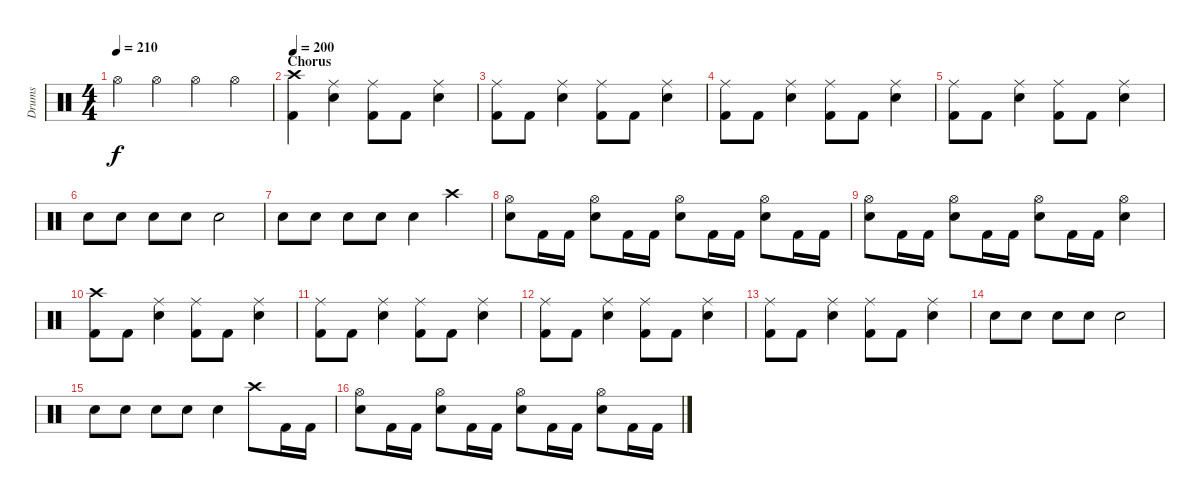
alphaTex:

\track ("Drums" "Drums") {instrument percussion}
\staff {score}
\articulation defaults
\ts (4 4)
\tempo 210
\clef neutral
\ks c "Hi-Hat (open)".4{dy f} "Hi-Hat (open)".4 "Hi-Hat (open)".4 "Hi-Hat (open)".4
|
\section ("" "Chorus")
\tempo 200
("Crash high (hit)" "Kick (hit) 2").4 ("Ride (middle)" "Electric Snare (hit)").4 ("Ride (middle)" "Kick (hit) 2").8 "Kick (hit) 2".8 ("Ride (middle)" "Electric Snare (hit)").4 |
("Ride (middle)" "Kick (hit) 2").8 "Kick (hit) 2".8 ("Ride (middle)" "Electric Snare (hit)").4 ("Ride (middle)" "Kick (hit) 2").8 "Kick (hit) 2".8 ("Ride (middle)" "Electric Snare (hit)").4 |
("Ride (middle)" "Kick (hit) 2").8 "Kick (hit) 2".8 ("Ride (middle)" "Electric Snare (hit)").4 ("Ride (middle)" "Kick (hit) 2").8 "Kick (hit) 2".8 ("Ride (middle)" "Electric Snare (hit)").4 |
("Ride (middle)" "Kick (hit) 2").8 "Kick (hit) 2".8 ("Ride (middle)" "Electric Snare (hit)").4 ("Ride (middle)" "Kick (hit) 2").8 "Kick (hit) 2".8 ("Ride (middle)" "Electric Snare (hit)").4 |
"Electric Snare (hit)".8 "Electric Snare (hit)".8 "Electric Snare (hit)".8 "Electric Snare (hit)".8 "Electric Snare (hit)".2 |
"Electric Snare (hit)".8 "Electric Snare (hit)".8 "Electric Snare (hit)".8 "Electric Snare (hit)".8 "Electric Snare (hit)".4 "Crash high (hit)".4 |
("Hi-Hat (open)" "Electric Snare (hit)").8 "Kick (hit) 2".16 "Kick (hit) 2".16 ("Hi-Hat (open)" "Electric Snare (hit)").8 "Kick (hit) 2".16 "Kick (hit) 2".16 ("Hi-Hat (open)" "Electric Snare (hit)").8 "Kick (hit) 2".16 "Kick (hit) 2".16 ("Hi-Hat (open)" "Electric Snare (hit)").8 "Kick (hit) 2".16 "Kick (hit) 2".16 |
("Hi-Hat (open)" "Electric Snare (hit)").8 "Kick (hit) 2".16 "Kick (hit) 2".16 ("Hi-Hat (open)" "Electric Snare (hit)").8 "Kick (hit) 2".16 "Kick (hit) 2".16 ("Hi-Hat (open)" "Electric Snare (hit)").8 "Kick (hit) 2".16 "Kick (hit) 2".16 ("Hi-Hat (open)" "Electric Snare (hit)").4 |
("Crash high (hit)" "Kick (hit) 2").8 "Kick (hit) 2".8 ("Ride (middle)" "Electric Snare (hit)").4 ("Ride (middle)" "Kick (hit) 2").8 "Kick (hit) 2".8 ("Ride (middle)" "Electric Snare (hit)").4 |
("Ride (middle)" "Kick (hit) 2").8 "Kick (hit) 2".8 ("Ride (middle)" "Electric Snare (hit)").4 ("Ride (middle)" "Kick (hit) 2").8 "Kick (hit) 2".8 ("Ride (middle)" "Electric Snare (hit)").4 |
("Ride (middle)" "Kick (hit) 2").8 "Kick (hit) 2".8 ("Ride (middle)" "Electric Snare (hit)").4 ("Ride (middle)" "Kick (hit) 2").8 "Kick (hit) 2".8 ("Ride (middle)" "Electric Snare (hit)").4 |
("Ride (middle)" "Kick (hit) 2").8 "Kick (hit) 2".8 ("Ride (middle)" "Electric Snare (hit)").4 ("Ride (middle)" "Kick (hit) 2").8 "Kick (hit) 2".8 ("Ride (middle)" "Electric Snare (hit)").4 |
"Electric Snare (hit)".8 "Electric Snare (hit)".8 "Electric Snare (hit)".8 "Electric Snare (hit)".8 "Electric Snare (hit)".2 |
"Electric Snare (hit)".8 "Electric Snare (hit)".8 "Electric Snare (hit)".8 "Electric Snare (hit)".8 "Electric Snare (hit)".4 "Crash high (hit)".8 "Kick (hit) 2".16 "Kick (hit) 2".16 |
("Hi-Hat (open)" "Electric Snare (hit)").8 "Kick (hit) 2".16 "Kick (hit) 2".16 ("Hi-Hat (open)" "Electric Snare (hit)").8 "Kick (hit) 2".16 "Kick (hit) 2".16 ("Hi-Hat (open)" "Electric Snare (hit)").8 "Kick (hit) 2".16 "Kick (hit) 2".16 ("Hi-Hat (open)" "Electric Snare (hit)").8 "Kick (hit) 2".16 "Kick (hit) 2".16
